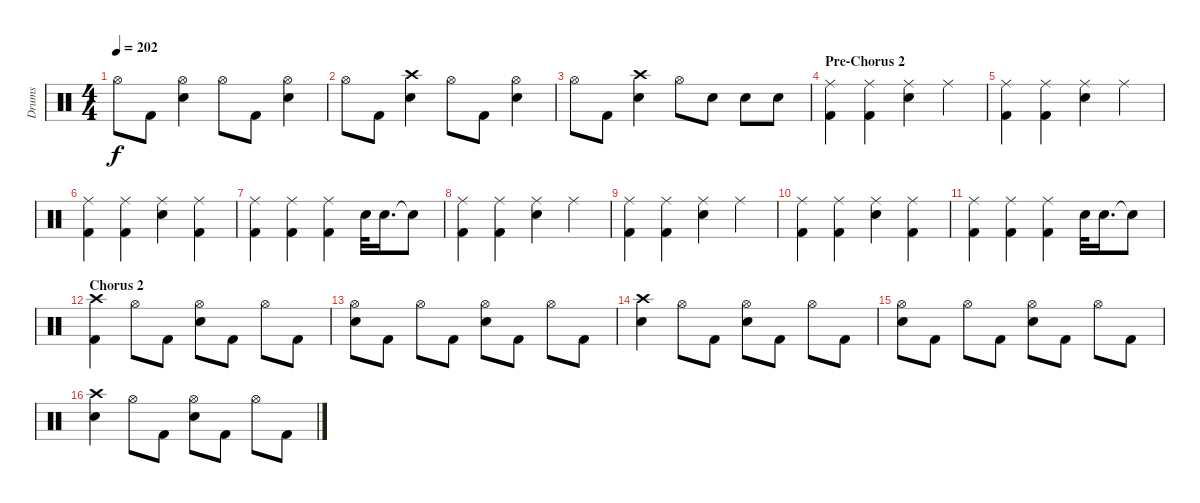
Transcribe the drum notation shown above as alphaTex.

\track ("Drums" "Drums") {instrument percussion}
\staff {score}
\articulation defaults
\ts (4 4)
\tempo 202
\clef neutral
\ks c "Hi-Hat (open)".8{dy f} "Kick (hit) 2".8
("Hi-Hat (open)" "Electric Snare (hit)").4 "Hi-Hat (open)".8 "Kick (hit) 2".8 ("Hi-Hat (open)" "Electric Snare (hit)").4 |
"Hi-Hat (open)".8 "Kick (hit) 2".8 ("Crash high (hit)" "Electric Snare (hit)").4 "Hi-Hat (open)".8 "Kick (hit) 2".8 ("Hi-Hat (open)" "Electric Snare (hit)").4 |
"Hi-Hat (open)".8 "Kick (hit) 2".8 ("Crash high (hit)" "Electric Snare (hit)").4 "Hi-Hat (open)".8 "Electric Snare (hit)".8 "Electric Snare (hit)".8 "Electric Snare (hit)".8 |
\section ("" "Pre-Chorus 2")
("Ride (middle)" "Kick (hit) 2").4 ("Ride (middle)" "Kick (hit) 2").4 ("Ride (middle)" "Electric Snare (hit)").4 "Ride (middle)".4 |
("Ride (middle)" "Kick (hit) 2").4 ("Ride (middle)" "Kick (hit) 2").4 ("Ride (middle)" "Electric Snare (hit)").4 "Ride (middle)".4 |
("Ride (middle)" "Kick (hit) 2").4 ("Ride (middle)" "Kick (hit) 2").4 ("Ride (middle)" "Electric Snare (hit)").4 ("Ride (middle)" "Kick (hit) 2").4 |
("Ride (middle)" "Kick (hit) 2").4 ("Ride (middle)" "Kick (hit) 2").4 ("Ride (middle)" "Kick (hit) 2").4 "Electric Snare (hit)".32 "Electric Snare (hit)".16{d} "Electric Snare (hit)"{t}.8 |
("Ride (middle)" "Kick (hit) 2").4 ("Ride (middle)" "Kick (hit) 2").4 ("Ride (middle)" "Electric Snare (hit)").4 "Ride (middle)".4 |
("Ride (middle)" "Kick (hit) 2").4 ("Ride (middle)" "Kick (hit) 2").4 ("Ride (middle)" "Electric Snare (hit)").4 "Ride (middle)".4 |
("Ride (middle)" "Kick (hit) 2").4 ("Ride (middle)" "Kick (hit) 2").4 ("Ride (middle)" "Electric Snare (hit)").4 ("Ride (middle)" "Kick (hit) 2").4 |
("Ride (middle)" "Kick (hit) 2").4 ("Ride (middle)" "Kick (hit) 2").4 ("Ride (middle)" "Kick (hit) 2").4 "Electric Snare (hit)".32 "Electric Snare (hit)".16{d} "Electric Snare (hit)"{t}.8 |
\section ("" "Chorus 2")
("Crash high (hit)" "Kick (hit) 2").4 "Hi-Hat (open)".8 "Kick (hit) 2".8 ("Hi-Hat (open)" "Electric Snare (hit)").8 "Kick (hit) 2".8 "Hi-Hat (open)".8 "Kick (hit) 2".8 |
("Hi-Hat (open)" "Electric Snare (hit)").8 "Kick (hit) 2".8 "Hi-Hat (open)".8 "Kick (hit) 2".8 ("Hi-Hat (open)" "Electric Snare (hit)").8 "Kick (hit) 2".8 "Hi-Hat (open)".8 "Kick (hit) 2".8 |
("Crash high (hit)" "Electric Snare (hit)").4 "Hi-Hat (open)".8 "Kick (hit) 2".8 ("Hi-Hat (open)" "Electric Snare (hit)").8 "Kick (hit) 2".8 "Hi-Hat (open)".8 "Kick (hit) 2".8 |
("Hi-Hat (open)" "Electric Snare (hit)").8 "Kick (hit) 2".8 "Hi-Hat (open)".8 "Kick (hit) 2".8 ("Hi-Hat (open)" "Electric Snare (hit)").8 "Kick (hit) 2".8 "Hi-Hat (open)".8 "Kick (hit) 2".8 |
("Crash high (hit)" "Electric Snare (hit)").4 "Hi-Hat (open)".8 "Kick (hit) 2".8 ("Hi-Hat (open)" "Electric Snare (hit)").8 "Kick (hit) 2".8 "Hi-Hat (open)".8 "Kick (hit) 2".8
